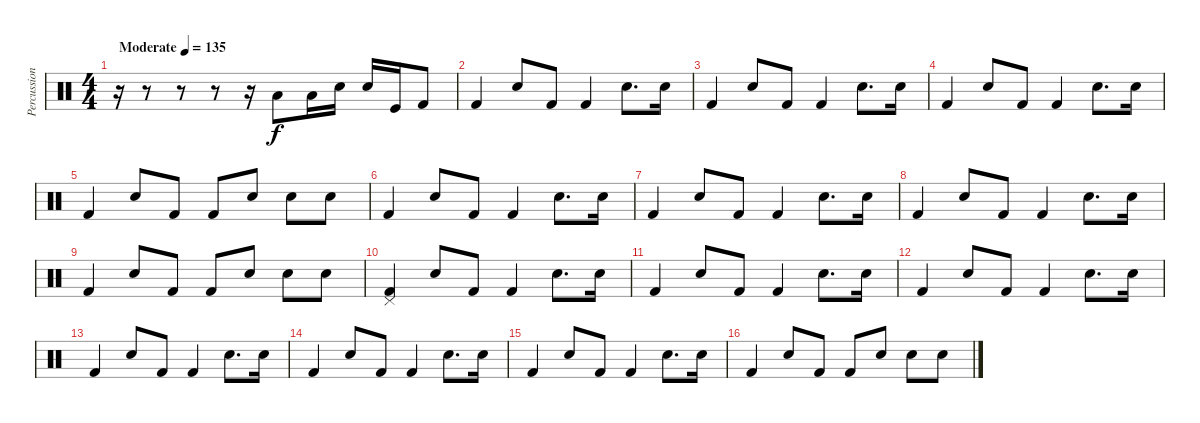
\track ("Percussion" "Percussion") {instrument percussion}
\staff {score}
\articulation defaults
\ts (4 4)
\tempo (135 "Moderate")
\clef neutral
\ks c
r.16{dy f} r.8 r.8 r.8 r.16 "Low Tom (hit)".8 "Low Tom (hit)".16 "Snare (hit) 2".16 "Snare (hit) 2".16 "Kick (hit)".16 "Kick (hit) 2".8 |
"Kick (hit) 2".4 "Electric Snare (hit)".8 "Kick (hit) 2".8 "Kick (hit) 2".4 "Electric Snare (hit)".8{d} "Snare (hit)".16 |
"Kick (hit) 2".4 "Electric Snare (hit)".8 "Kick (hit) 2".8 "Kick (hit) 2".4 "Electric Snare (hit)".8{d} "Snare (hit)".16 |
"Kick (hit) 2".4 "Electric Snare (hit)".8 "Kick (hit) 2".8 "Kick (hit) 2".4 "Electric Snare (hit)".8{d} "Snare (hit)".16 |
"Kick (hit) 2".4 "Electric Snare (hit)".8 "Kick (hit) 2".8 "Kick (hit) 2".8 "Electric Snare (hit)".8 "Electric Snare (hit)".8 "Snare (hit)".8 |
"Kick (hit) 2".4 "Electric Snare (hit)".8 "Kick (hit) 2".8 "Kick (hit) 2".4 "Electric Snare (hit)".8{d} "Snare (hit)".16 |
"Kick (hit) 2".4 "Electric Snare (hit)".8 "Kick (hit) 2".8 "Kick (hit) 2".4 "Electric Snare (hit)".8{d} "Snare (hit)".16 |
"Kick (hit) 2".4 "Electric Snare (hit)".8 "Kick (hit) 2".8 "Kick (hit) 2".4 "Electric Snare (hit)".8{d} "Snare (hit)".16 |
"Kick (hit) 2".4 "Electric Snare (hit)".8 "Kick (hit) 2".8 "Kick (hit) 2".8 "Electric Snare (hit)".8 "Electric Snare (hit)".8 "Snare (hit)".8 |
("Pedal Hi-Hat (hit)" "Kick (hit) 2").4 "Electric Snare (hit)".8 "Kick (hit) 2".8 "Kick (hit) 2".4 "Electric Snare (hit)".8{d} "Snare (hit)".16 |
"Kick (hit) 2".4 "Electric Snare (hit)".8 "Kick (hit) 2".8 "Kick (hit) 2".4 "Electric Snare (hit)".8{d} "Snare (hit)".16 |
"Kick (hit) 2".4 "Electric Snare (hit)".8 "Kick (hit) 2".8 "Kick (hit) 2".4 "Electric Snare (hit)".8{d} "Snare (hit)".16 |
"Kick (hit) 2".4 "Electric Snare (hit)".8 "Kick (hit) 2".8 "Kick (hit) 2".4 "Electric Snare (hit)".8{d} "Snare (hit)".16 |
"Kick (hit) 2".4 "Electric Snare (hit)".8 "Kick (hit) 2".8 "Kick (hit) 2".4 "Electric Snare (hit)".8{d} "Snare (hit)".16 |
"Kick (hit) 2".4 "Electric Snare (hit)".8 "Kick (hit) 2".8 "Kick (hit) 2".4 "Electric Snare (hit)".8{d} "Snare (hit)".16 |
"Kick (hit) 2".4 "Electric Snare (hit)".8 "Kick (hit) 2".8 "Kick (hit) 2".8 "Electric Snare (hit)".8 "Electric Snare (hit)".8 "Snare (hit)".8
